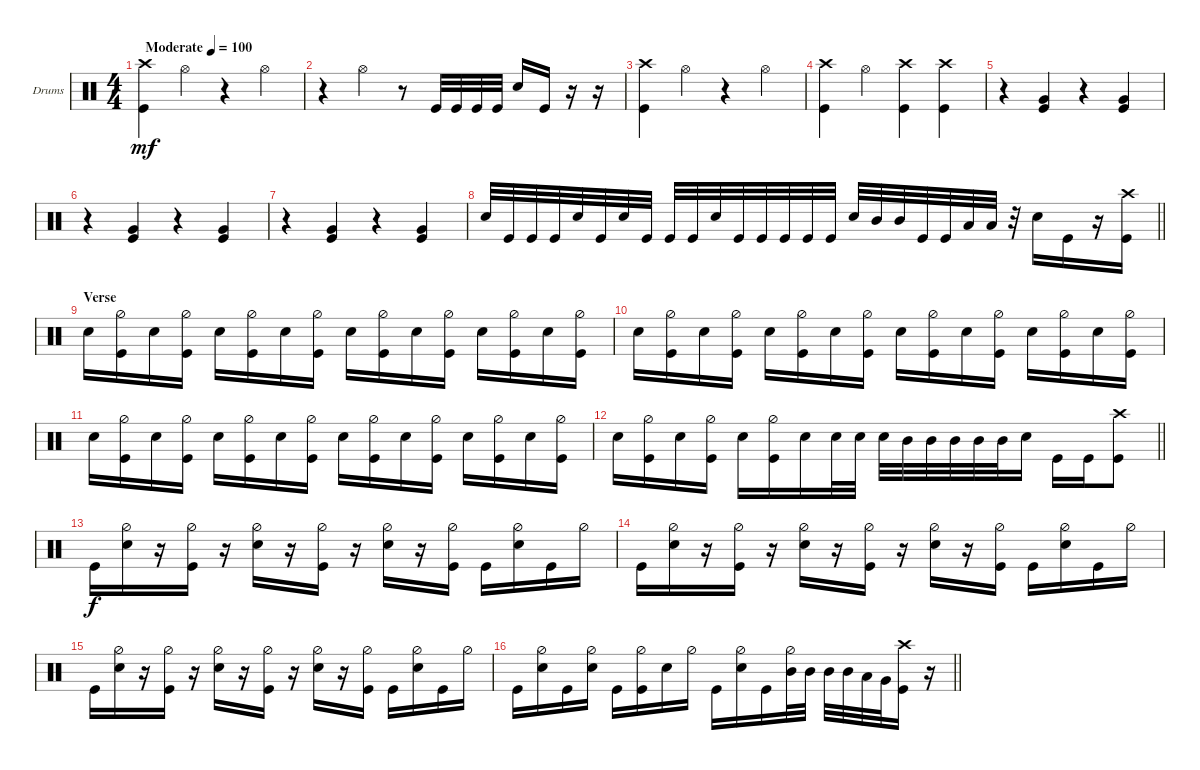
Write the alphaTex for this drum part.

\bracketExtendMode groupsimilarinstruments
\firstSystemTrackNameOrientation horizontal
\otherSystemsTrackNameOrientation horizontal
\track ("Drumkit" "Drums") {instrument percussion}
\staff {score}
\articulation defaults
\ts (4 4)
\beaming (8 2 2 2 2)
\tempo (100 "Moderate")
\clef neutral
\scale
0.474178
\ks c
("Kick (hit)" "Crash high (hit)").4{dy mf} "Hi-Hat (open)".4 r.4 "Hi-Hat (open)".4 |
\scale
0.262911 r.4 "Hi-Hat (open)".4 r.8 "Kick (hit)".32 "Kick (hit)".32 "Kick (hit)".32 "Kick (hit)".32 "Snare (hit) 2".16 "Kick (hit)".16 r.16 r.16 |
\scale
0.262911 ("Kick (hit)" "Crash high (hit)").4 "Hi-Hat (open)".4 r.4 "Hi-Hat (open)".4 |
\scale
0.333333 ("Kick (hit)" "Crash high (hit)").4 "Hi-Hat (open)".4 ("Crash high (hit)" "Kick (hit)").4 ("Crash high (hit)" "Kick (hit)").4 |
\scale
0.333333 r.4 ("Very Low Tom (hit)" "Kick (hit)").4 r.4 ("Kick (hit)" "Very Low Tom (hit)").4 |
\scale
0.333333 r.4 ("Very Low Tom (hit)" "Kick (hit)").4 r.4 ("Kick (hit)" "Very Low Tom (hit)").4 |
\scale
0.333333 r.4 ("Very Low Tom (hit)" "Kick (hit)").4 r.4 ("Kick (hit)" "Very Low Tom (hit)").4 |
\scale
0.333333
\barLineRight lightlight "Snare (hit) 2".32 "Kick (hit)".32 "Kick (hit)".32 "Kick (hit)".32 "Snare (hit) 2".32 "Kick (hit)".32 "Snare (hit) 2".32 "Kick (hit)".32 "Kick (hit)".32 "Kick (hit)".32 "Snare (hit) 2".32 "Kick (hit)".32 "Kick (hit)".32 "Kick (hit)".32 "Kick (hit)".32 "Kick (hit)".32 "Snare (hit) 2".32 "Mid Tom (hit)".32 "Mid Tom (hit)".32 "Kick (hit)".32 "Kick (hit)".32 "Low Tom (hit)".32 "Low Tom (hit)".32
r.32 "Snare (hit) 2".16 "Kick (hit)".16 r.16 ("Kick (hit)" "Crash high (hit)").16 |
\section ("" "Verse")
\scale
0.333333 "Snare (hit) 2".16 ("Hi-Hat (half)" "Kick (hit)").16 "Snare (hit) 2".16 ("Hi-Hat (half)" "Kick (hit)").16 "Snare (hit) 2".16 ("Hi-Hat (half)" "Kick (hit)").16 "Snare (hit) 2".16 ("Hi-Hat (half)" "Kick (hit)").16 "Snare (hit) 2".16 ("Hi-Hat (half)" "Kick (hit)").16 "Snare (hit) 2".16 ("Hi-Hat (half)" "Kick (hit)").16 "Snare (hit) 2".16 ("Kick (hit)" "Hi-Hat (half)").16 "Snare (hit) 2".16 ("Kick (hit)" "Hi-Hat (half)").16 |
\scale
0.333333 "Snare (hit) 2".16 ("Hi-Hat (half)" "Kick (hit)").16 "Snare (hit) 2".16 ("Hi-Hat (half)" "Kick (hit)").16 "Snare (hit) 2".16 ("Hi-Hat (half)" "Kick (hit)").16 "Snare (hit) 2".16 ("Hi-Hat (half)" "Kick (hit)").16 "Snare (hit) 2".16 ("Hi-Hat (half)" "Kick (hit)").16 "Snare (hit) 2".16 ("Hi-Hat (half)" "Kick (hit)").16 "Snare (hit) 2".16 ("Kick (hit)" "Hi-Hat (half)").16 "Snare (hit) 2".16 ("Kick (hit)" "Hi-Hat (half)").16 |
\scale
0.333333 "Snare (hit) 2".16 ("Hi-Hat (half)" "Kick (hit)").16 "Snare (hit) 2".16 ("Hi-Hat (half)" "Kick (hit)").16 "Snare (hit) 2".16 ("Hi-Hat (half)" "Kick (hit)").16 "Snare (hit) 2".16 ("Hi-Hat (half)" "Kick (hit)").16 "Snare (hit) 2".16 ("Hi-Hat (half)" "Kick (hit)").16 "Snare (hit) 2".16 ("Hi-Hat (half)" "Kick (hit)").16 "Snare (hit) 2".16 ("Kick (hit)" "Hi-Hat (half)").16 "Snare (hit) 2".16 ("Kick (hit)" "Hi-Hat (half)").16 |
\scale
0.333333
\barLineRight lightlight "Snare (hit) 2".16
("Hi-Hat (half)" "Kick (hit)").16 "Snare (hit) 2".16 ("Hi-Hat (half)" "Kick (hit)").16 "Snare (hit) 2".16 ("Hi-Hat (half)" "Kick (hit)").16 "Snare (hit) 2".16 "Snare (hit) 2".32 "Snare (hit) 2".32 "Snare (hit) 2".32 "Mid Tom (hit)".32 "Mid Tom (hit)".32 "Mid Tom (hit)".32 "Mid Tom (hit)".32 "Mid Tom (hit)".32 "Snare (hit) 2".16 "Kick (hit)".16 "Kick (hit)".16 ("Kick (hit)" "Crash high (hit)").8 |
\scale
0.333333 "Kick (hit)".16{dy f} ("Snare (hit) 2" "Hi-Hat (half)").16 r.16 ("Kick (hit)" "Hi-Hat (half)").16 r.16 ("Snare (hit) 2" "Hi-Hat (half)").16 r.16 ("Kick (hit)" "Hi-Hat (half)").16 r.16 ("Snare (hit) 2" "Hi-Hat (half)").16 r.16 ("Kick (hit)" "Hi-Hat (half)").16 "Kick (hit)".16 ("Snare (hit) 2" "Hi-Hat (half)").16 "Kick (hit)".16 "Hi-Hat (half)".16 |
\scale
0.333333 "Kick (hit)".16 ("Snare (hit) 2" "Hi-Hat (half)").16 r.16 ("Kick (hit)" "Hi-Hat (half)").16 r.16 ("Snare (hit) 2" "Hi-Hat (half)").16 r.16 ("Kick (hit)" "Hi-Hat (half)").16 r.16 ("Snare (hit) 2" "Hi-Hat (half)").16 r.16 ("Kick (hit)" "Hi-Hat (half)").16 "Kick (hit)".16 ("Snare (hit) 2" "Hi-Hat (half)").16 "Kick (hit)".16 "Hi-Hat (half)".16 |
\scale
0.333333 "Kick (hit)".16 ("Snare (hit) 2" "Hi-Hat (half)").16 r.16 ("Kick (hit)" "Hi-Hat (half)").16 r.16 ("Snare (hit) 2" "Hi-Hat (half)").16 r.16 ("Kick (hit)" "Hi-Hat (half)").16 r.16 ("Snare (hit) 2" "Hi-Hat (half)").16 r.16 ("Kick (hit)" "Hi-Hat (half)").16 "Kick (hit)".16 ("Snare (hit) 2" "Hi-Hat (half)").16 "Kick (hit)".16 "Hi-Hat (half)".16 |
\scale
0.333333
\barLineRight lightlight "Kick (hit)".16
("Snare (hit) 2" "Hi-Hat (half)").16 "Kick (hit)".16 ("Snare (hit) 2" "Hi-Hat (half)").16 "Kick (hit)".16 ("Kick (hit)" "Hi-Hat (half)").16 "Snare (hit) 2".16 "Hi-Hat (half)".16 "Kick (hit)".16 ("Snare (hit) 2" "Hi-Hat (half)").16 "Kick (hit)".16 ("Mid Tom (hit)" "Hi-Hat (half)").32 "Mid Tom (hit)".32 "Mid Tom (hit)".32 "Mid Tom (hit)".32 "Low Tom (hit)".32 "Very Low Tom (hit)".32 ("Kick (hit)" "Crash high (hit)").16 r.16
